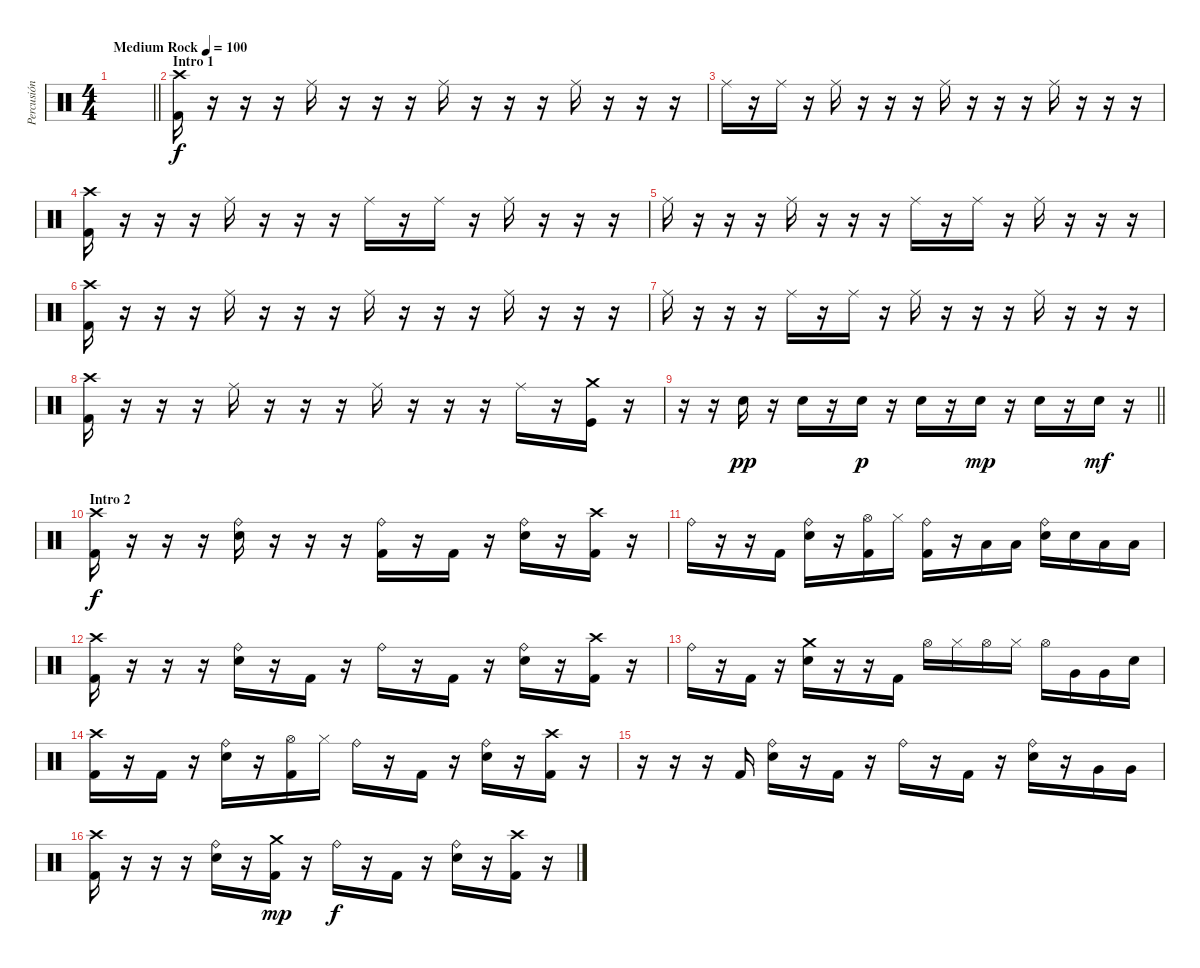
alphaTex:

\track ("Percusión" "Percusión") {instrument percussion}
\staff {score}
\articulation defaults
\ts (4 4)
\tempo (100 "Medium Rock")
\clef neutral
\barLineRight lightlight
\ks c
|
\section ("" "Intro 1")
("Crash high (hit)" "Kick (hit) 2").16 r.16 r.16 r.16 "Ride (middle)".16 r.16 r.16 r.16 "Ride (middle)".16 r.16 r.16 r.16 "Ride (middle)".16 r.16 r.16 r.16 |
"Ride (middle)".16 r.16 "Ride (middle)".16 r.16 "Ride (middle)".16 r.16 r.16 r.16 "Ride (middle)".16 r.16 r.16 r.16 "Ride (middle)".16 r.16 r.16 r.16 |
("Crash high (hit)" "Kick (hit) 2").16 r.16 r.16 r.16 "Ride (middle)".16 r.16 r.16 r.16 "Ride (middle)".16 r.16 "Ride (middle)".16 r.16 "Ride (middle)".16 r.16 r.16 r.16 |
"Ride (middle)".16 r.16 r.16 r.16 "Ride (middle)".16 r.16 r.16 r.16 "Ride (middle)".16 r.16 "Ride (middle)".16 r.16 "Ride (middle)".16 r.16 r.16 r.16 |
("Crash high (hit)" "Kick (hit) 2").16 r.16 r.16 r.16 "Ride (middle)".16 r.16 r.16 r.16 "Ride (middle)".16 r.16 r.16 r.16 "Ride (middle)".16 r.16 r.16 r.16 |
"Ride (middle)".16 r.16 r.16 r.16 "Ride (middle)".16 r.16 "Ride (middle)".16 r.16 "Ride (middle)".16 r.16 r.16 r.16 "Ride (middle)".16 r.16 r.16 r.16 |
("Crash high (hit)" "Kick (hit) 2").16 r.16 r.16 r.16 "Ride (middle)".16 r.16 r.16 r.16 "Ride (middle)".16 r.16 r.16 r.16 "Ride (middle)".16 r.16 ("Crash medium (hit)" "Kick (hit)").16 r.16 |
\barLineRight lightlight
r.16 r.16 "Electric Snare (hit)".16{dy pp} r.16 "Electric Snare (hit)".16 r.16 "Electric Snare (hit)".16{dy p} r.16 "Electric Snare (hit)".16 r.16 "Electric Snare (hit)".16{dy mp} r.16 "Electric Snare (hit)".16 r.16 "Electric Snare (hit)".16{dy mf} r.16 |
\section ("" "Intro 2")
("Crash high (hit)" "Kick (hit) 2").16{dy f} r.16 r.16 r.16 ("Ride (bell)" "Electric Snare (hit)").16 r.16 r.16 r.16 ("Ride (bell)" "Kick (hit) 2").16 r.16 "Kick (hit) 2".16 r.16 ("Ride (bell)" "Electric Snare (hit)").16 r.16 ("Crash high (hit)" "Kick (hit) 2").16 r.16 |
"Ride (bell)".16 r.16 r.16 "Kick (hit) 2".16 ("Ride (bell)" "Electric Snare (hit)").16 r.16 ("Hi-Hat (open)" "Kick (hit) 2").16 "Hi-Hat (closed)".16 ("Ride (bell)" "Kick (hit) 2").16 r.16 "Low Tom (hit)".16 "Low Tom (hit)".16 ("Ride (bell)" "Electric Snare (hit)").16 "Electric Snare (hit)".16 "Low Floor Tom (hit)".16 "Low Floor Tom (hit)".16 |
("Crash high (hit)" "Kick (hit) 2").16 r.16 r.16 r.16 ("Ride (bell)" "Electric Snare (hit)").16 r.16 "Kick (hit) 2".16 r.16 "Ride (bell)".16 r.16 "Kick (hit) 2".16 r.16 ("Ride (bell)" "Electric Snare (hit)").16 r.16 ("Crash high (hit)" "Kick (hit) 2").16 r.16 |
"Ride (bell)".16 r.16 "Kick (hit) 2".16 r.16 ("Crash medium (hit)" "Electric Snare (hit)").16 r.16 r.16 "Kick (hit) 2".16 "Hi-Hat (open)".16 "Hi-Hat (closed)".16 "Hi-Hat (open)".16 "Hi-Hat (closed)".16 "Hi-Hat (open)".16 "Very Low Tom (hit)".16 "Very Low Tom (hit)".16 "Electric Snare (hit)".16 |
("Crash high (hit)" "Kick (hit) 2").16 r.16 "Kick (hit) 2".16 r.16 ("Ride (bell)" "Electric Snare (hit)").16 r.16 ("Hi-Hat (open)" "Kick (hit) 2").16 "Hi-Hat (closed)".16 "Ride (bell)".16 r.16 "Kick (hit) 2".16 r.16 ("Ride (bell)" "Electric Snare (hit)").16 r.16 ("Crash high (hit)" "Kick (hit) 2").16 r.16 |
r.16 r.16 r.16 "Kick (hit) 2".16 ("Ride (bell)" "Electric Snare (hit)").16 r.16 "Kick (hit) 2".16 r.16 "Ride (bell)".16 r.16 "Kick (hit) 2".16 r.16 ("Ride (bell)" "Electric Snare (hit)").16 r.16 "Very Low Tom (hit)".16 "Very Low Tom (hit)".16 |
("Crash high (hit)" "Kick (hit) 2").16 r.16 r.16 r.16 ("Ride (bell)" "Electric Snare (hit)").16 r.16 ("Crash medium (hit)" "Kick (hit) 2").16{dy mp} r.16 "Ride (bell)".16{dy f} r.16 "Kick (hit) 2".16 r.16 ("Ride (bell)" "Electric Snare (hit)").16 r.16 ("Crash high (hit)" "Kick (hit) 2").16 r.16
